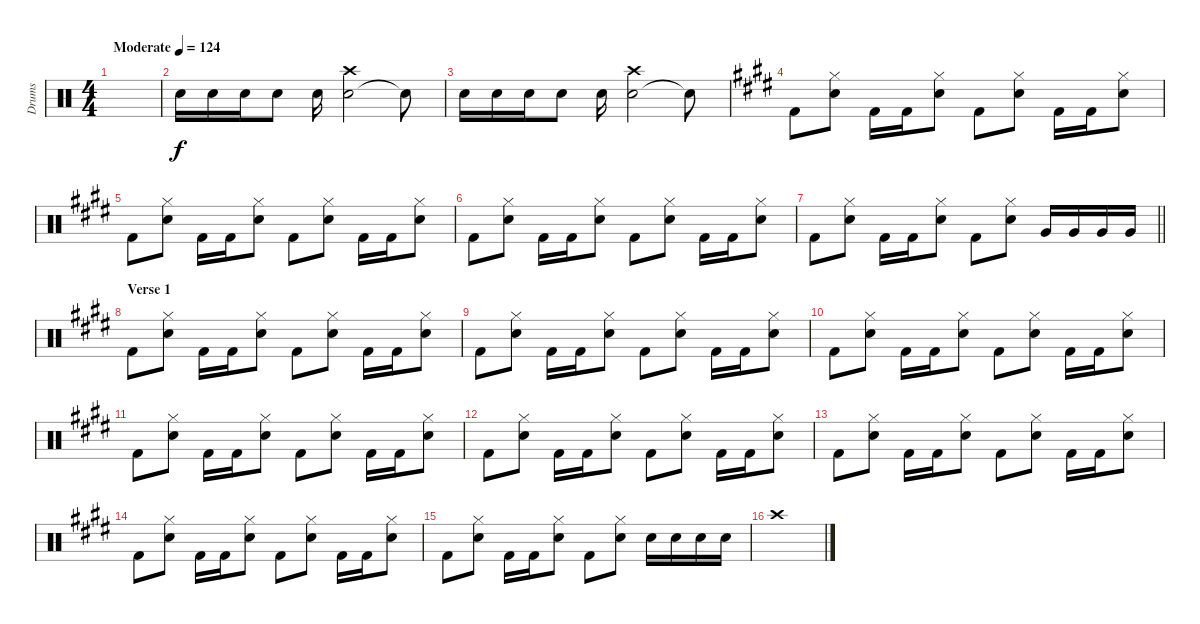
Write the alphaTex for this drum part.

\track ("Drums" "Drums") {instrument percussion}
\staff {score}
\articulation defaults
\ts (4 4)
\tempo (124 "Moderate")
\clef neutral
\ks c
|
"Electric Snare (hit)".16 "Electric Snare (hit)".16 "Electric Snare (hit)".16 "Electric Snare (hit)".8 "Electric Snare (hit)".16 ("Electric Snare (hit)" "Crash high (hit)").2 "Snare (hit)"{t}.8 |
"Electric Snare (hit)".16 "Electric Snare (hit)".16 "Electric Snare (hit)".16 "Electric Snare (hit)".8 "Electric Snare (hit)".16 ("Electric Snare (hit)" "Crash high (hit)").2 "Snare (hit)"{t}.8 |
\ks c#minor "Kick (hit) 2".8
("Snare (hit) 2" "Hi-Hat (closed)").8 "Kick (hit) 2".16 "Kick (hit) 2".16 ("Snare (hit) 2" "Hi-Hat (closed)").8 "Kick (hit) 2".8 ("Snare (hit) 2" "Hi-Hat (closed)").8 "Kick (hit) 2".16 "Kick (hit) 2".16 ("Snare (hit) 2" "Hi-Hat (closed)").8 |
"Kick (hit) 2".8 ("Snare (hit) 2" "Hi-Hat (closed)").8 "Kick (hit) 2".16 "Kick (hit) 2".16 ("Snare (hit) 2" "Hi-Hat (closed)").8 "Kick (hit) 2".8 ("Snare (hit) 2" "Hi-Hat (closed)").8 "Kick (hit) 2".16 "Kick (hit) 2".16 ("Snare (hit) 2" "Hi-Hat (closed)").8 |
"Kick (hit) 2".8 ("Snare (hit) 2" "Hi-Hat (closed)").8 "Kick (hit) 2".16 "Kick (hit) 2".16 ("Snare (hit) 2" "Hi-Hat (closed)").8 "Kick (hit) 2".8 ("Snare (hit) 2" "Hi-Hat (closed)").8 "Kick (hit) 2".16 "Kick (hit) 2".16 ("Snare (hit) 2" "Hi-Hat (closed)").8 |
\barLineRight lightlight "Kick (hit) 2".8
("Snare (hit) 2" "Hi-Hat (closed)").8 "Kick (hit) 2".16 "Kick (hit) 2".16 ("Snare (hit) 2" "Hi-Hat (closed)").8 "Kick (hit) 2".8 ("Snare (hit) 2" "Hi-Hat (closed)").8 "Very Low Tom (hit)".16 "Very Low Tom (hit)".16 "Very Low Tom (hit)".16 "Very Low Tom (hit)".16 |
\section ("" "Verse 1")
"Kick (hit) 2".8 ("Snare (hit) 2" "Hi-Hat (closed)").8 "Kick (hit) 2".16 "Kick (hit) 2".16 ("Snare (hit) 2" "Hi-Hat (closed)").8 "Kick (hit) 2".8 ("Snare (hit) 2" "Hi-Hat (closed)").8 "Kick (hit) 2".16 "Kick (hit) 2".16 ("Snare (hit) 2" "Hi-Hat (closed)").8 |
"Kick (hit) 2".8 ("Snare (hit) 2" "Hi-Hat (closed)").8 "Kick (hit) 2".16 "Kick (hit) 2".16 ("Snare (hit) 2" "Hi-Hat (closed)").8 "Kick (hit) 2".8 ("Snare (hit) 2" "Hi-Hat (closed)").8 "Kick (hit) 2".16 "Kick (hit) 2".16 ("Snare (hit) 2" "Hi-Hat (closed)").8 |
"Kick (hit) 2".8 ("Snare (hit) 2" "Hi-Hat (closed)").8 "Kick (hit) 2".16 "Kick (hit) 2".16 ("Snare (hit) 2" "Hi-Hat (closed)").8 "Kick (hit) 2".8 ("Snare (hit) 2" "Hi-Hat (closed)").8 "Kick (hit) 2".16 "Kick (hit) 2".16 ("Snare (hit) 2" "Hi-Hat (closed)").8 |
"Kick (hit) 2".8 ("Snare (hit) 2" "Hi-Hat (closed)").8 "Kick (hit) 2".16 "Kick (hit) 2".16 ("Snare (hit) 2" "Hi-Hat (closed)").8 "Kick (hit) 2".8 ("Snare (hit) 2" "Hi-Hat (closed)").8 "Kick (hit) 2".16 "Kick (hit) 2".16 ("Snare (hit) 2" "Hi-Hat (closed)").8 |
"Kick (hit) 2".8 ("Snare (hit) 2" "Hi-Hat (closed)").8 "Kick (hit) 2".16 "Kick (hit) 2".16 ("Snare (hit) 2" "Hi-Hat (closed)").8 "Kick (hit) 2".8 ("Snare (hit) 2" "Hi-Hat (closed)").8 "Kick (hit) 2".16 "Kick (hit) 2".16 ("Snare (hit) 2" "Hi-Hat (closed)").8 |
"Kick (hit) 2".8 ("Snare (hit) 2" "Hi-Hat (closed)").8 "Kick (hit) 2".16 "Kick (hit) 2".16 ("Snare (hit) 2" "Hi-Hat (closed)").8 "Kick (hit) 2".8 ("Snare (hit) 2" "Hi-Hat (closed)").8 "Kick (hit) 2".16 "Kick (hit) 2".16 ("Snare (hit) 2" "Hi-Hat (closed)").8 |
"Kick (hit) 2".8 ("Snare (hit) 2" "Hi-Hat (closed)").8 "Kick (hit) 2".16 "Kick (hit) 2".16 ("Snare (hit) 2" "Hi-Hat (closed)").8 "Kick (hit) 2".8 ("Snare (hit) 2" "Hi-Hat (closed)").8 "Kick (hit) 2".16 "Kick (hit) 2".16 ("Snare (hit) 2" "Hi-Hat (closed)").8 |
"Kick (hit) 2".8 ("Snare (hit) 2" "Hi-Hat (closed)").8 "Kick (hit) 2".16 "Kick (hit) 2".16 ("Snare (hit) 2" "Hi-Hat (closed)").8 "Kick (hit) 2".8 ("Snare (hit) 2" "Hi-Hat (closed)").8 "Electric Snare (hit)".16 "Electric Snare (hit)".16 "Electric Snare (hit)".16 "Electric Snare (hit)".16 |
"Crash high (hit)".1
